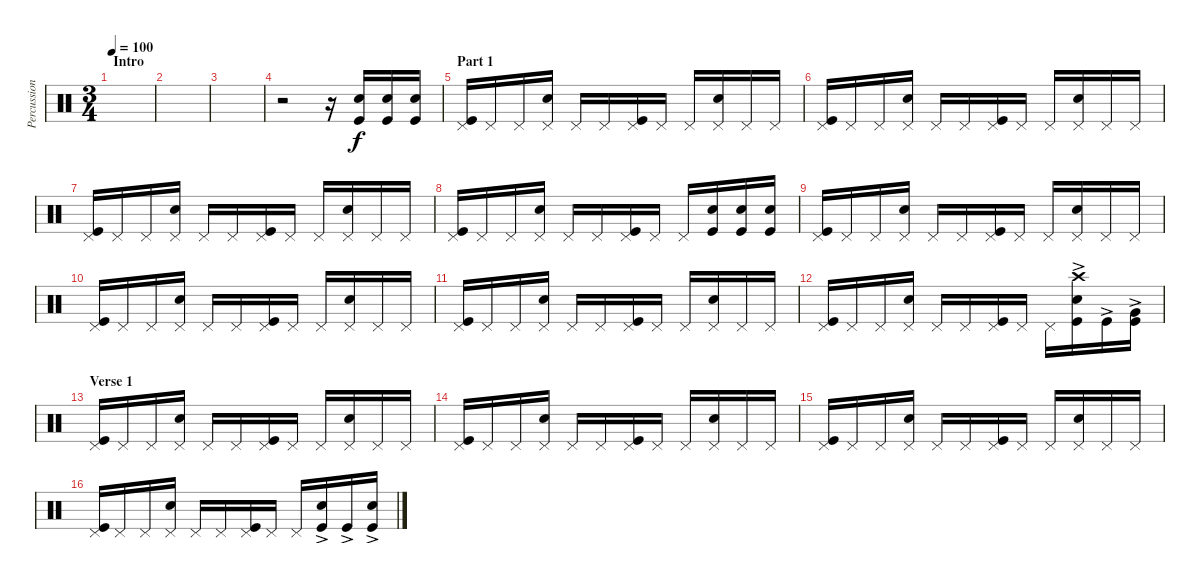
\track ("Percussion" "Percussion") {instrument percussion}
\staff {score}
\articulation defaults
\ts (3 4)
\section ("" "Intro")
\tempo 100
\clef neutral
\ks c
|
|
|
r.2 r.16 ("Snare (hit) 2" "Kick (hit)").16 ("Snare (hit) 2" "Kick (hit)").16 ("Snare (hit) 2" "Kick (hit)").16 |
\section ("" "Part 1")
("Pedal Hi-Hat (hit)" "Kick (hit)").16 "Pedal Hi-Hat (hit)".16 "Pedal Hi-Hat (hit)".16 ("Pedal Hi-Hat (hit)" "Snare (hit) 2").16 "Pedal Hi-Hat (hit)".16 "Pedal Hi-Hat (hit)".16 ("Pedal Hi-Hat (hit)" "Kick (hit)").16 "Pedal Hi-Hat (hit)".16 "Pedal Hi-Hat (hit)".16 ("Pedal Hi-Hat (hit)" "Snare (hit) 2").16 "Pedal Hi-Hat (hit)".16 "Pedal Hi-Hat (hit)".16 |
("Pedal Hi-Hat (hit)" "Kick (hit)").16 "Pedal Hi-Hat (hit)".16 "Pedal Hi-Hat (hit)".16 ("Pedal Hi-Hat (hit)" "Snare (hit) 2").16 "Pedal Hi-Hat (hit)".16 "Pedal Hi-Hat (hit)".16 ("Pedal Hi-Hat (hit)" "Kick (hit)").16 "Pedal Hi-Hat (hit)".16 "Pedal Hi-Hat (hit)".16 ("Pedal Hi-Hat (hit)" "Snare (hit) 2").16 "Pedal Hi-Hat (hit)".16 "Pedal Hi-Hat (hit)".16 |
("Pedal Hi-Hat (hit)" "Kick (hit)").16 "Pedal Hi-Hat (hit)".16 "Pedal Hi-Hat (hit)".16 ("Pedal Hi-Hat (hit)" "Snare (hit) 2").16 "Pedal Hi-Hat (hit)".16 "Pedal Hi-Hat (hit)".16 ("Pedal Hi-Hat (hit)" "Kick (hit)").16 "Pedal Hi-Hat (hit)".16 "Pedal Hi-Hat (hit)".16 ("Pedal Hi-Hat (hit)" "Snare (hit) 2").16 "Pedal Hi-Hat (hit)".16 "Pedal Hi-Hat (hit)".16 |
("Pedal Hi-Hat (hit)" "Kick (hit)").16 "Pedal Hi-Hat (hit)".16 "Pedal Hi-Hat (hit)".16 ("Pedal Hi-Hat (hit)" "Snare (hit) 2").16 "Pedal Hi-Hat (hit)".16 "Pedal Hi-Hat (hit)".16 ("Pedal Hi-Hat (hit)" "Kick (hit)").16 "Pedal Hi-Hat (hit)".16 "Pedal Hi-Hat (hit)".16 ("Snare (hit) 2" "Kick (hit)").16 ("Snare (hit) 2" "Kick (hit)").16 ("Snare (hit) 2" "Kick (hit)").16 |
("Pedal Hi-Hat (hit)" "Kick (hit)").16 "Pedal Hi-Hat (hit)".16 "Pedal Hi-Hat (hit)".16 ("Pedal Hi-Hat (hit)" "Snare (hit) 2").16 "Pedal Hi-Hat (hit)".16 "Pedal Hi-Hat (hit)".16 ("Pedal Hi-Hat (hit)" "Kick (hit)").16 "Pedal Hi-Hat (hit)".16 "Pedal Hi-Hat (hit)".16 ("Pedal Hi-Hat (hit)" "Snare (hit) 2").16 "Pedal Hi-Hat (hit)".16 "Pedal Hi-Hat (hit)".16 |
("Pedal Hi-Hat (hit)" "Kick (hit)").16 "Pedal Hi-Hat (hit)".16 "Pedal Hi-Hat (hit)".16 ("Pedal Hi-Hat (hit)" "Snare (hit) 2").16 "Pedal Hi-Hat (hit)".16 "Pedal Hi-Hat (hit)".16 ("Pedal Hi-Hat (hit)" "Kick (hit)").16 "Pedal Hi-Hat (hit)".16 "Pedal Hi-Hat (hit)".16 ("Pedal Hi-Hat (hit)" "Snare (hit) 2").16 "Pedal Hi-Hat (hit)".16 "Pedal Hi-Hat (hit)".16 |
("Pedal Hi-Hat (hit)" "Kick (hit)").16 "Pedal Hi-Hat (hit)".16 "Pedal Hi-Hat (hit)".16 ("Pedal Hi-Hat (hit)" "Snare (hit) 2").16 "Pedal Hi-Hat (hit)".16 "Pedal Hi-Hat (hit)".16 ("Pedal Hi-Hat (hit)" "Kick (hit)").16 "Pedal Hi-Hat (hit)".16 "Pedal Hi-Hat (hit)".16 ("Pedal Hi-Hat (hit)" "Snare (hit) 2").16 "Pedal Hi-Hat (hit)".16 "Pedal Hi-Hat (hit)".16 |
("Pedal Hi-Hat (hit)" "Kick (hit)").16 "Pedal Hi-Hat (hit)".16 "Pedal Hi-Hat (hit)".16 ("Pedal Hi-Hat (hit)" "Snare (hit) 2").16 "Pedal Hi-Hat (hit)".16 "Pedal Hi-Hat (hit)".16 ("Pedal Hi-Hat (hit)" "Kick (hit)").16 "Pedal Hi-Hat (hit)".16 "Pedal Hi-Hat (hit)".16 ("Crash high (hit)" "Snare (hit) 2"{ac} "Kick (hit)").16 "Kick (hit)"{ac}.16 ("Very Low Tom (hit)"{ac} "Kick (hit)").16 |
\section ("" "Verse 1")
("Pedal Hi-Hat (hit)" "Kick (hit)").16 "Pedal Hi-Hat (hit)".16 "Pedal Hi-Hat (hit)".16 ("Pedal Hi-Hat (hit)" "Snare (hit) 2").16 "Pedal Hi-Hat (hit)".16 "Pedal Hi-Hat (hit)".16 ("Pedal Hi-Hat (hit)" "Kick (hit)").16 "Pedal Hi-Hat (hit)".16 "Pedal Hi-Hat (hit)".16 ("Pedal Hi-Hat (hit)" "Snare (hit) 2").16 "Pedal Hi-Hat (hit)".16 "Pedal Hi-Hat (hit)".16 |
("Pedal Hi-Hat (hit)" "Kick (hit)").16 "Pedal Hi-Hat (hit)".16 "Pedal Hi-Hat (hit)".16 ("Pedal Hi-Hat (hit)" "Snare (hit) 2").16 "Pedal Hi-Hat (hit)".16 "Pedal Hi-Hat (hit)".16 ("Pedal Hi-Hat (hit)" "Kick (hit)").16 "Pedal Hi-Hat (hit)".16 "Pedal Hi-Hat (hit)".16 ("Pedal Hi-Hat (hit)" "Snare (hit) 2").16 "Pedal Hi-Hat (hit)".16 "Pedal Hi-Hat (hit)".16 |
("Pedal Hi-Hat (hit)" "Kick (hit)").16 "Pedal Hi-Hat (hit)".16 "Pedal Hi-Hat (hit)".16 ("Pedal Hi-Hat (hit)" "Snare (hit) 2").16 "Pedal Hi-Hat (hit)".16 "Pedal Hi-Hat (hit)".16 ("Pedal Hi-Hat (hit)" "Kick (hit)").16 "Pedal Hi-Hat (hit)".16 "Pedal Hi-Hat (hit)".16 ("Pedal Hi-Hat (hit)" "Snare (hit) 2").16 "Pedal Hi-Hat (hit)".16 "Pedal Hi-Hat (hit)".16 |
("Pedal Hi-Hat (hit)" "Kick (hit)").16 "Pedal Hi-Hat (hit)".16 "Pedal Hi-Hat (hit)".16 ("Pedal Hi-Hat (hit)" "Snare (hit) 2").16 "Pedal Hi-Hat (hit)".16 "Pedal Hi-Hat (hit)".16 ("Pedal Hi-Hat (hit)" "Kick (hit)").16 "Pedal Hi-Hat (hit)".16 "Pedal Hi-Hat (hit)".16 ("Snare (hit) 2"{ac} "Kick (hit)").16 "Kick (hit)"{ac}.16 ("Snare (hit) 2"{ac} "Kick (hit)").16
